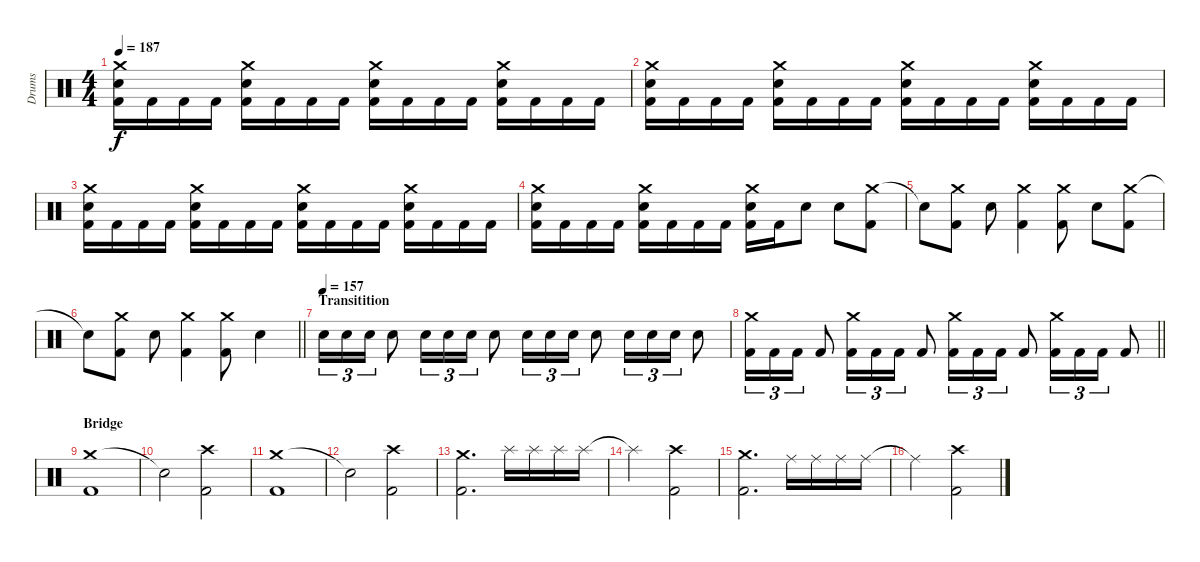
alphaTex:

\track ("Drums" "Drums") {instrument percussion}
\staff {score}
\articulation defaults
\ts (4 4)
\tempo 187
\clef neutral
\ks c
("Crash medium (hit)" "Electric Snare (hit)" "Kick (hit) 2").16{dy f} "Kick (hit) 2".16 "Kick (hit) 2".16 "Kick (hit) 2".16 ("Crash medium (hit)" "Electric Snare (hit)" "Kick (hit) 2").16 "Kick (hit) 2".16 "Kick (hit) 2".16 "Kick (hit) 2".16 ("Crash medium (hit)" "Electric Snare (hit)" "Kick (hit) 2").16 "Kick (hit) 2".16 "Kick (hit) 2".16 "Kick (hit) 2".16 ("Crash medium (hit)" "Electric Snare (hit)" "Kick (hit) 2").16 "Kick (hit) 2".16 "Kick (hit) 2".16 "Kick (hit) 2".16 |
("Crash medium (hit)" "Electric Snare (hit)" "Kick (hit) 2").16 "Kick (hit) 2".16 "Kick (hit) 2".16 "Kick (hit) 2".16 ("Crash medium (hit)" "Electric Snare (hit)" "Kick (hit) 2").16 "Kick (hit) 2".16 "Kick (hit) 2".16 "Kick (hit) 2".16 ("Crash medium (hit)" "Electric Snare (hit)" "Kick (hit) 2").16 "Kick (hit) 2".16 "Kick (hit) 2".16 "Kick (hit) 2".16 ("Crash medium (hit)" "Electric Snare (hit)" "Kick (hit) 2").16 "Kick (hit) 2".16 "Kick (hit) 2".16 "Kick (hit) 2".16 |
("Crash medium (hit)" "Electric Snare (hit)" "Kick (hit) 2").16 "Kick (hit) 2".16 "Kick (hit) 2".16 "Kick (hit) 2".16 ("Crash medium (hit)" "Electric Snare (hit)" "Kick (hit) 2").16 "Kick (hit) 2".16 "Kick (hit) 2".16 "Kick (hit) 2".16 ("Crash medium (hit)" "Electric Snare (hit)" "Kick (hit) 2").16 "Kick (hit) 2".16 "Kick (hit) 2".16 "Kick (hit) 2".16 ("Crash medium (hit)" "Electric Snare (hit)" "Kick (hit) 2").16 "Kick (hit) 2".16 "Kick (hit) 2".16 "Kick (hit) 2".16 |
("Crash medium (hit)" "Electric Snare (hit)" "Kick (hit) 2").16 "Kick (hit) 2".16 "Kick (hit) 2".16 "Kick (hit) 2".16 ("Crash medium (hit)" "Electric Snare (hit)" "Kick (hit) 2").16 "Kick (hit) 2".16 "Kick (hit) 2".16 "Kick (hit) 2".16 ("Crash medium (hit)" "Electric Snare (hit)" "Kick (hit) 2").16 "Kick (hit) 2".16 "Electric Snare (hit)".8 "Electric Snare (hit)".8 ("Crash medium (hit)" "Kick (hit) 2").8 |
"Snare (hit)"{t}.8 ("Crash medium (hit)" "Kick (hit) 2").8 "Electric Snare (hit)".8 ("Crash medium (hit)" "Kick (hit) 2").4 ("Crash medium (hit)" "Kick (hit) 2").8 "Electric Snare (hit)".8 ("Crash medium (hit)" "Kick (hit) 2").8 |
\barLineRight lightlight "Snare (hit)"{t}.8
("Crash medium (hit)" "Kick (hit) 2").8 "Electric Snare (hit)".8 ("Crash medium (hit)" "Kick (hit) 2").4 ("Crash medium (hit)" "Kick (hit) 2").8 "Electric Snare (hit)".4 |
\section ("" "Transitition")
\tempo (157)
"Electric Snare (hit)".16{tu (3 2)} "Electric Snare (hit)".16{tu (3 2)} "Electric Snare (hit)".16{tu (3 2)} "Electric Snare (hit)".8 "Electric Snare (hit)".16{tu (3 2)} "Electric Snare (hit)".16{tu (3 2)} "Electric Snare (hit)".16{tu (3 2)} "Electric Snare (hit)".8 "Electric Snare (hit)".16{tu (3 2)} "Electric Snare (hit)".16{tu (3 2)} "Electric Snare (hit)".16{tu (3 2)} "Electric Snare (hit)".8 "Electric Snare (hit)".16{tu (3 2)} "Electric Snare (hit)".16{tu (3 2)} "Electric Snare (hit)".16{tu (3 2)} "Electric Snare (hit)".8 |
\barLineRight lightlight
("Crash medium (hit)" "Kick (hit) 2").16{tu (3 2)} "Kick (hit) 2".16{tu (3 2)} "Kick (hit) 2".16{tu (3 2)} "Kick (hit) 2".8 ("Crash medium (hit)" "Kick (hit) 2").16{tu (3 2)} "Kick (hit) 2".16{tu (3 2)} "Kick (hit) 2".16{tu (3 2)} "Kick (hit) 2".8 ("Crash medium (hit)" "Kick (hit) 2").16{tu (3 2)} "Kick (hit) 2".16{tu (3 2)} "Kick (hit) 2".16{tu (3 2)} "Kick (hit) 2".8 ("Crash medium (hit)" "Kick (hit) 2").16{tu (3 2)} "Kick (hit) 2".16{tu (3 2)} "Kick (hit) 2".16{tu (3 2)} "Kick (hit) 2".8 |
\section ("" "Bridge")
("Crash medium (hit)" "Kick (hit) 2").1 |
"Snare (hit)"{t}.2 ("Crash high (hit)" "Kick (hit) 2").2 |
("Crash medium (hit)" "Kick (hit) 2").1 |
"Snare (hit)"{t}.2 ("Crash high (hit)" "Kick (hit) 2").2 |
("Crash medium (hit)" "Kick (hit) 2").2{d} "Splash (hit)".16 "Splash (hit)".16 "Splash (hit)".16 "Splash (hit)".16 |
"Splash (hit)"{t}.2 ("Crash high (hit)" "Kick (hit) 2").2 |
("Crash medium (hit)" "Kick (hit) 2").2{d} "Ride (middle)".16 "Ride (middle)".16 "Ride (middle)".16 "Ride (middle)".16 |
"Ride (middle)"{t}.2 ("Crash high (hit)" "Kick (hit) 2").2
